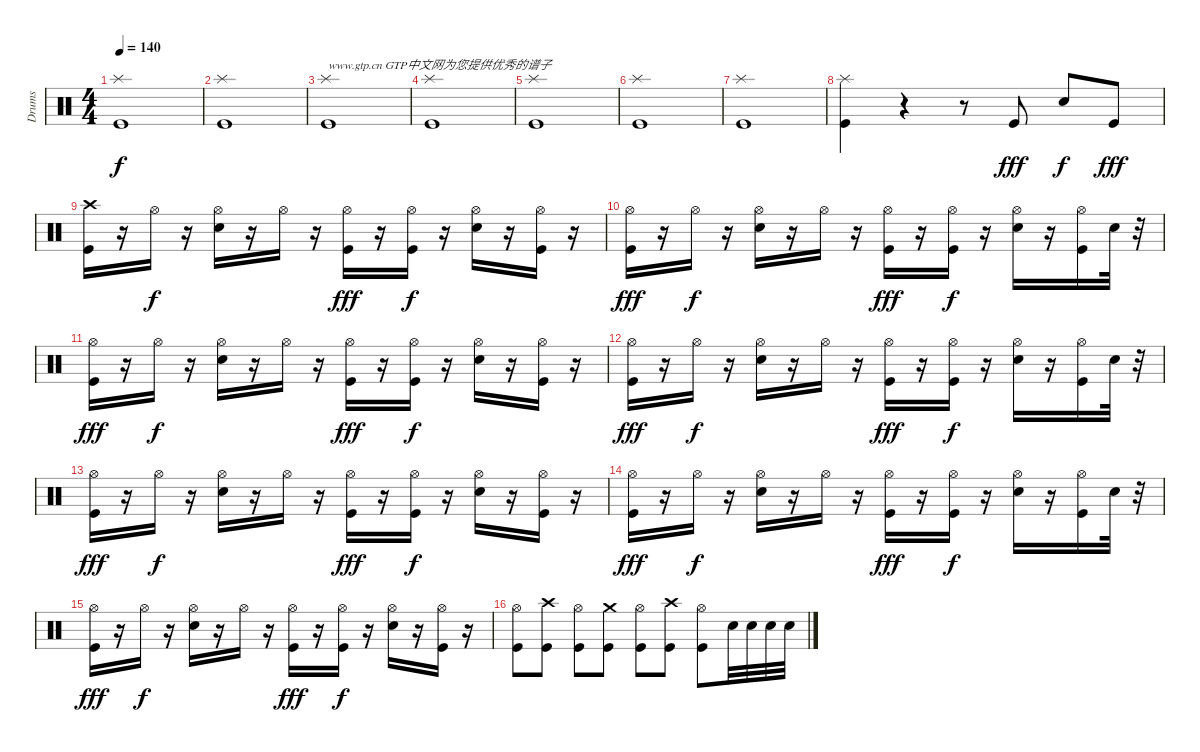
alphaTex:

\track ("Drums" "Drums") {instrument percussion}
\staff {score}
\articulation defaults
\ts (4 4)
\tempo 140
\clef neutral
\ks c
("Splash (hit)" "Kick (hit)").1{dy f} |
("Splash (hit)" "Kick (hit)").1 |
("Splash (hit)" "Kick (hit)").1{txt "www.gtp.cn GTP中文网为您提供优秀的谱子"} |
("Splash (hit)" "Kick (hit)").1 |
("Splash (hit)" "Kick (hit)").1 |
("Splash (hit)" "Kick (hit)").1 |
("Splash (hit)" "Kick (hit)").1 |
("Splash (hit)" "Kick (hit)").4 r.4 r.8 "Kick (hit)".8{dy fff} "Electric Snare (hit)".8{dy f} "Kick (hit)".8{dy fff} |
("Crash high (hit)" "Kick (hit)").16 r.16 "Hi-Hat (open)".16{dy f} r.16 ("Hi-Hat (open)" "Electric Snare (hit)").16 r.16 "Hi-Hat (open)".16 r.16 ("Hi-Hat (open)" "Kick (hit)").16{dy fff} r.16 ("Hi-Hat (open)" "Kick (hit)").16{dy f} r.16 ("Hi-Hat (open)" "Electric Snare (hit)").16 r.16 ("Hi-Hat (open)" "Kick (hit)").16 r.16 |
("Hi-Hat (open)" "Kick (hit)").16{dy fff} r.16 "Hi-Hat (open)".16{dy f} r.16 ("Hi-Hat (open)" "Electric Snare (hit)").16 r.16 "Hi-Hat (open)".16 r.16 ("Hi-Hat (open)" "Kick (hit)").16{dy fff} r.16 ("Hi-Hat (open)" "Kick (hit)").16{dy f} r.16 ("Hi-Hat (open)" "Electric Snare (hit)").16 r.16 ("Hi-Hat (open)" "Kick (hit)").16 "Electric Snare (hit)".32 r.32 |
("Hi-Hat (open)" "Kick (hit)").16{dy fff} r.16 "Hi-Hat (open)".16{dy f} r.16 ("Hi-Hat (open)" "Electric Snare (hit)").16 r.16 "Hi-Hat (open)".16 r.16 ("Hi-Hat (open)" "Kick (hit)").16{dy fff} r.16 ("Hi-Hat (open)" "Kick (hit)").16{dy f} r.16 ("Hi-Hat (open)" "Electric Snare (hit)").16 r.16 ("Hi-Hat (open)" "Kick (hit)").16 r.16 |
("Hi-Hat (open)" "Kick (hit)").16{dy fff} r.16 "Hi-Hat (open)".16{dy f} r.16 ("Hi-Hat (open)" "Electric Snare (hit)").16 r.16 "Hi-Hat (open)".16 r.16 ("Hi-Hat (open)" "Kick (hit)").16{dy fff} r.16 ("Hi-Hat (open)" "Kick (hit)").16{dy f} r.16 ("Hi-Hat (open)" "Electric Snare (hit)").16 r.16 ("Hi-Hat (open)" "Kick (hit)").16 "Electric Snare (hit)".32 r.32 |
("Hi-Hat (open)" "Kick (hit)").16{dy fff} r.16 "Hi-Hat (open)".16{dy f} r.16 ("Hi-Hat (open)" "Electric Snare (hit)").16 r.16 "Hi-Hat (open)".16 r.16 ("Hi-Hat (open)" "Kick (hit)").16{dy fff} r.16 ("Hi-Hat (open)" "Kick (hit)").16{dy f} r.16 ("Hi-Hat (open)" "Electric Snare (hit)").16 r.16 ("Hi-Hat (open)" "Kick (hit)").16 r.16 |
("Hi-Hat (open)" "Kick (hit)").16{dy fff} r.16 "Hi-Hat (open)".16{dy f} r.16 ("Hi-Hat (open)" "Electric Snare (hit)").16 r.16 "Hi-Hat (open)".16 r.16 ("Hi-Hat (open)" "Kick (hit)").16{dy fff} r.16 ("Hi-Hat (open)" "Kick (hit)").16{dy f} r.16 ("Hi-Hat (open)" "Electric Snare (hit)").16 r.16 ("Hi-Hat (open)" "Kick (hit)").16 "Electric Snare (hit)".32 r.32 |
("Hi-Hat (open)" "Kick (hit)").16{dy fff} r.16 "Hi-Hat (open)".16{dy f} r.16 ("Hi-Hat (open)" "Electric Snare (hit)").16 r.16 "Hi-Hat (open)".16 r.16 ("Hi-Hat (open)" "Kick (hit)").16{dy fff} r.16 ("Hi-Hat (open)" "Kick (hit)").16{dy f} r.16 ("Hi-Hat (open)" "Electric Snare (hit)").16 r.16 ("Hi-Hat (open)" "Kick (hit)").16 r.16 |
("Hi-Hat (open)" "Kick (hit)").8 ("Crash high (hit)" "Kick (hit)").8 ("Hi-Hat (open)" "Kick (hit)").8 ("Crash medium (hit)" "Kick (hit)").8 ("Hi-Hat (open)" "Kick (hit)").8 ("Crash high (hit)" "Kick (hit)").8 ("Hi-Hat (open)" "Kick (hit)").8 "Electric Snare (hit)".32 "Electric Snare (hit)".32 "Electric Snare (hit)".32 "Electric Snare (hit)".32
